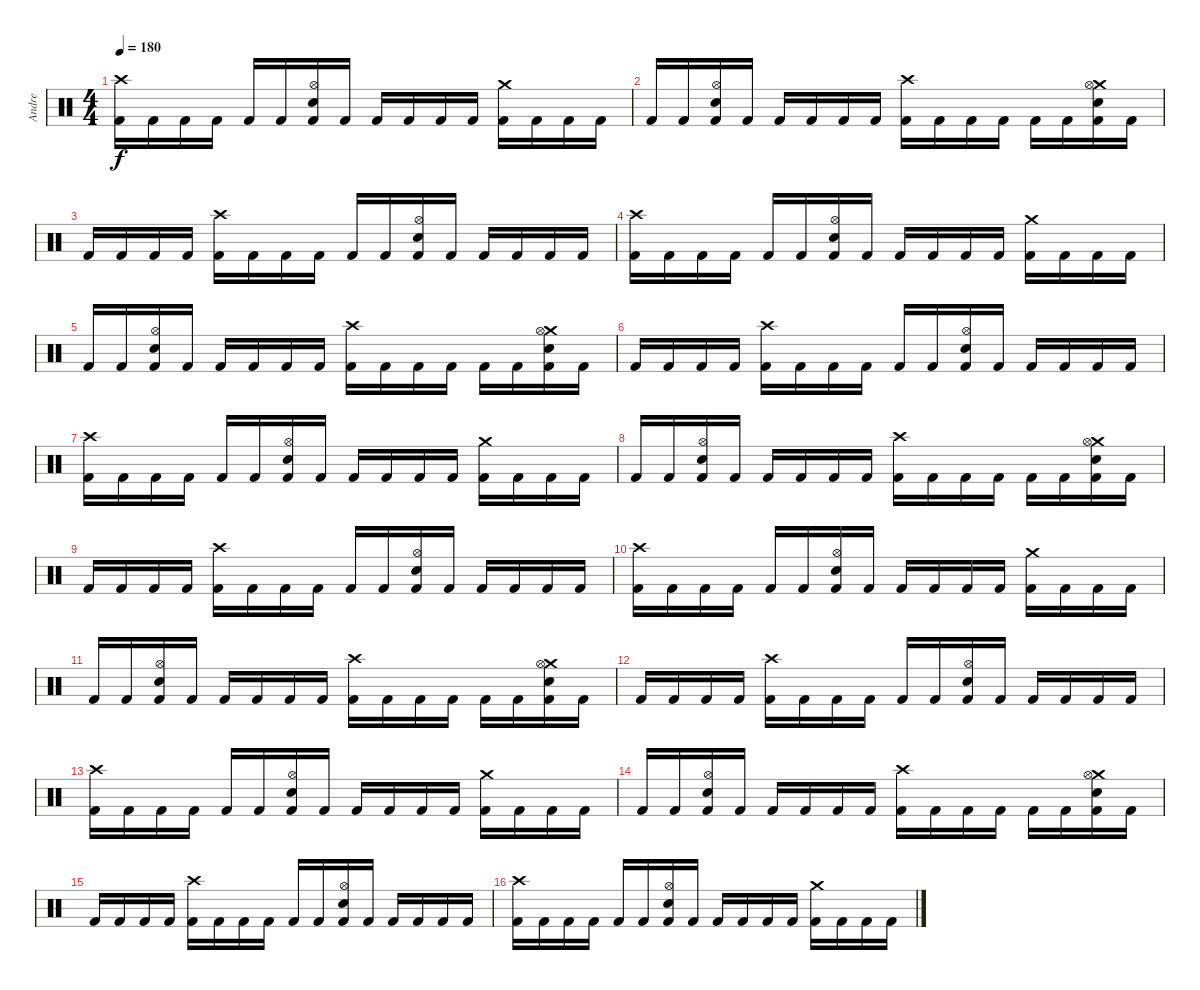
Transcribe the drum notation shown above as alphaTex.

\track ("Andre" "Andre") {instrument percussion}
\staff {score}
\articulation defaults
\ts (4 4)
\tempo 180
\clef neutral
\ks c
("Crash high (hit)" "Kick (hit) 2").16{dy f} "Kick (hit) 2".16 "Kick (hit) 2".16 "Kick (hit) 2".16 "Kick (hit) 2".16 "Kick (hit) 2".16 ("Hi-Hat (open)" "Snare (hit) 2" "Kick (hit) 2").16 "Kick (hit) 2".16 "Kick (hit) 2".16 "Kick (hit) 2".16 "Kick (hit) 2".16 "Kick (hit) 2".16 ("Crash medium (hit)" "Kick (hit) 2").16 "Kick (hit) 2".16 "Kick (hit) 2".16 "Kick (hit) 2".16 |
"Kick (hit) 2".16 "Kick (hit) 2".16 ("Hi-Hat (open)" "Snare (hit) 2" "Kick (hit) 2").16 "Kick (hit) 2".16 "Kick (hit) 2".16 "Kick (hit) 2".16 "Kick (hit) 2".16 "Kick (hit) 2".16 ("Crash high (hit)" "Kick (hit) 2").16 "Kick (hit) 2".16 "Kick (hit) 2".16 "Kick (hit) 2".16 "Kick (hit) 2".16 "Kick (hit) 2".16 ("Crash medium (hit)" "Hi-Hat (open)" "Snare (hit) 2" "Kick (hit) 2").16 "Kick (hit) 2".16 |
"Kick (hit) 2".16 "Kick (hit) 2".16 "Kick (hit) 2".16 "Kick (hit) 2".16 ("Crash high (hit)" "Kick (hit) 2").16 "Kick (hit) 2".16 "Kick (hit) 2".16 "Kick (hit) 2".16 "Kick (hit) 2".16 "Kick (hit) 2".16 ("Hi-Hat (open)" "Snare (hit) 2" "Kick (hit) 2").16 "Kick (hit) 2".16 "Kick (hit) 2".16 "Kick (hit) 2".16 "Kick (hit) 2".16 "Kick (hit) 2".16 |
("Crash high (hit)" "Kick (hit) 2").16 "Kick (hit) 2".16 "Kick (hit) 2".16 "Kick (hit) 2".16 "Kick (hit) 2".16 "Kick (hit) 2".16 ("Hi-Hat (open)" "Snare (hit) 2" "Kick (hit) 2").16 "Kick (hit) 2".16 "Kick (hit) 2".16 "Kick (hit) 2".16 "Kick (hit) 2".16 "Kick (hit) 2".16 ("Crash medium (hit)" "Kick (hit) 2").16 "Kick (hit) 2".16 "Kick (hit) 2".16 "Kick (hit) 2".16 |
"Kick (hit) 2".16 "Kick (hit) 2".16 ("Hi-Hat (open)" "Snare (hit) 2" "Kick (hit) 2").16 "Kick (hit) 2".16 "Kick (hit) 2".16 "Kick (hit) 2".16 "Kick (hit) 2".16 "Kick (hit) 2".16 ("Crash high (hit)" "Kick (hit) 2").16 "Kick (hit) 2".16 "Kick (hit) 2".16 "Kick (hit) 2".16 "Kick (hit) 2".16 "Kick (hit) 2".16 ("Crash medium (hit)" "Hi-Hat (open)" "Snare (hit) 2" "Kick (hit) 2").16 "Kick (hit) 2".16 |
"Kick (hit) 2".16 "Kick (hit) 2".16 "Kick (hit) 2".16 "Kick (hit) 2".16 ("Crash high (hit)" "Kick (hit) 2").16 "Kick (hit) 2".16 "Kick (hit) 2".16 "Kick (hit) 2".16 "Kick (hit) 2".16 "Kick (hit) 2".16 ("Hi-Hat (open)" "Snare (hit) 2" "Kick (hit) 2").16 "Kick (hit) 2".16 "Kick (hit) 2".16 "Kick (hit) 2".16 "Kick (hit) 2".16 "Kick (hit) 2".16 |
("Crash high (hit)" "Kick (hit) 2").16 "Kick (hit) 2".16 "Kick (hit) 2".16 "Kick (hit) 2".16 "Kick (hit) 2".16 "Kick (hit) 2".16 ("Hi-Hat (open)" "Snare (hit) 2" "Kick (hit) 2").16 "Kick (hit) 2".16 "Kick (hit) 2".16 "Kick (hit) 2".16 "Kick (hit) 2".16 "Kick (hit) 2".16 ("Crash medium (hit)" "Kick (hit) 2").16 "Kick (hit) 2".16 "Kick (hit) 2".16 "Kick (hit) 2".16 |
"Kick (hit) 2".16 "Kick (hit) 2".16 ("Hi-Hat (open)" "Snare (hit) 2" "Kick (hit) 2").16 "Kick (hit) 2".16 "Kick (hit) 2".16 "Kick (hit) 2".16 "Kick (hit) 2".16 "Kick (hit) 2".16 ("Crash high (hit)" "Kick (hit) 2").16 "Kick (hit) 2".16 "Kick (hit) 2".16 "Kick (hit) 2".16 "Kick (hit) 2".16 "Kick (hit) 2".16 ("Crash medium (hit)" "Hi-Hat (open)" "Snare (hit) 2" "Kick (hit) 2").16 "Kick (hit) 2".16 |
"Kick (hit) 2".16 "Kick (hit) 2".16 "Kick (hit) 2".16 "Kick (hit) 2".16 ("Crash high (hit)" "Kick (hit) 2").16 "Kick (hit) 2".16 "Kick (hit) 2".16 "Kick (hit) 2".16 "Kick (hit) 2".16 "Kick (hit) 2".16 ("Hi-Hat (open)" "Snare (hit) 2" "Kick (hit) 2").16 "Kick (hit) 2".16 "Kick (hit) 2".16 "Kick (hit) 2".16 "Kick (hit) 2".16 "Kick (hit) 2".16 |
("Crash high (hit)" "Kick (hit) 2").16 "Kick (hit) 2".16 "Kick (hit) 2".16 "Kick (hit) 2".16 "Kick (hit) 2".16 "Kick (hit) 2".16 ("Hi-Hat (open)" "Snare (hit) 2" "Kick (hit) 2").16 "Kick (hit) 2".16 "Kick (hit) 2".16 "Kick (hit) 2".16 "Kick (hit) 2".16 "Kick (hit) 2".16 ("Crash medium (hit)" "Kick (hit) 2").16 "Kick (hit) 2".16 "Kick (hit) 2".16 "Kick (hit) 2".16 |
"Kick (hit) 2".16 "Kick (hit) 2".16 ("Hi-Hat (open)" "Snare (hit) 2" "Kick (hit) 2").16 "Kick (hit) 2".16 "Kick (hit) 2".16 "Kick (hit) 2".16 "Kick (hit) 2".16 "Kick (hit) 2".16 ("Crash high (hit)" "Kick (hit) 2").16 "Kick (hit) 2".16 "Kick (hit) 2".16 "Kick (hit) 2".16 "Kick (hit) 2".16 "Kick (hit) 2".16 ("Crash medium (hit)" "Hi-Hat (open)" "Snare (hit) 2" "Kick (hit) 2").16 "Kick (hit) 2".16 |
"Kick (hit) 2".16 "Kick (hit) 2".16 "Kick (hit) 2".16 "Kick (hit) 2".16 ("Crash high (hit)" "Kick (hit) 2").16 "Kick (hit) 2".16 "Kick (hit) 2".16 "Kick (hit) 2".16 "Kick (hit) 2".16 "Kick (hit) 2".16 ("Hi-Hat (open)" "Snare (hit) 2" "Kick (hit) 2").16 "Kick (hit) 2".16 "Kick (hit) 2".16 "Kick (hit) 2".16 "Kick (hit) 2".16 "Kick (hit) 2".16 |
("Crash high (hit)" "Kick (hit) 2").16 "Kick (hit) 2".16 "Kick (hit) 2".16 "Kick (hit) 2".16 "Kick (hit) 2".16 "Kick (hit) 2".16 ("Hi-Hat (open)" "Snare (hit) 2" "Kick (hit) 2").16 "Kick (hit) 2".16 "Kick (hit) 2".16 "Kick (hit) 2".16 "Kick (hit) 2".16 "Kick (hit) 2".16 ("Crash medium (hit)" "Kick (hit) 2").16 "Kick (hit) 2".16 "Kick (hit) 2".16 "Kick (hit) 2".16 |
"Kick (hit) 2".16 "Kick (hit) 2".16 ("Hi-Hat (open)" "Snare (hit) 2" "Kick (hit) 2").16 "Kick (hit) 2".16 "Kick (hit) 2".16 "Kick (hit) 2".16 "Kick (hit) 2".16 "Kick (hit) 2".16 ("Crash high (hit)" "Kick (hit) 2").16 "Kick (hit) 2".16 "Kick (hit) 2".16 "Kick (hit) 2".16 "Kick (hit) 2".16 "Kick (hit) 2".16 ("Crash medium (hit)" "Hi-Hat (open)" "Snare (hit) 2" "Kick (hit) 2").16 "Kick (hit) 2".16 |
"Kick (hit) 2".16 "Kick (hit) 2".16 "Kick (hit) 2".16 "Kick (hit) 2".16 ("Crash high (hit)" "Kick (hit) 2").16 "Kick (hit) 2".16 "Kick (hit) 2".16 "Kick (hit) 2".16 "Kick (hit) 2".16 "Kick (hit) 2".16 ("Hi-Hat (open)" "Snare (hit) 2" "Kick (hit) 2").16 "Kick (hit) 2".16 "Kick (hit) 2".16 "Kick (hit) 2".16 "Kick (hit) 2".16 "Kick (hit) 2".16 |
("Crash high (hit)" "Kick (hit) 2").16 "Kick (hit) 2".16 "Kick (hit) 2".16 "Kick (hit) 2".16 "Kick (hit) 2".16 "Kick (hit) 2".16 ("Hi-Hat (open)" "Snare (hit) 2" "Kick (hit) 2").16 "Kick (hit) 2".16 "Kick (hit) 2".16 "Kick (hit) 2".16 "Kick (hit) 2".16 "Kick (hit) 2".16 ("Crash medium (hit)" "Kick (hit) 2").16 "Kick (hit) 2".16 "Kick (hit) 2".16 "Kick (hit) 2".16
